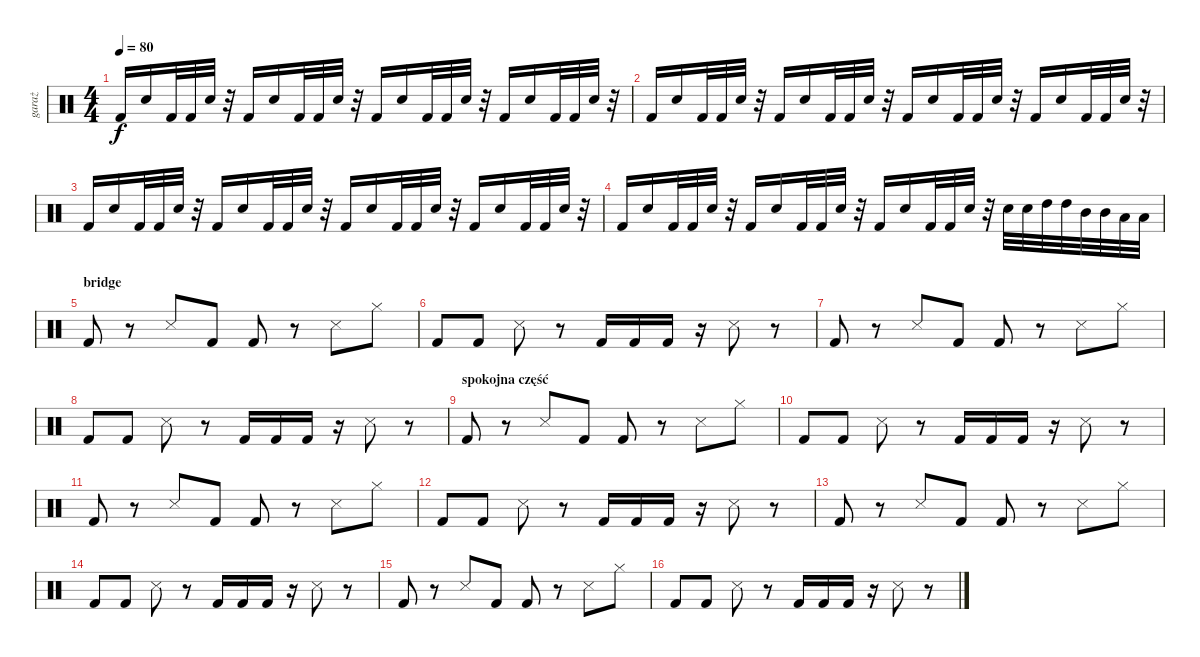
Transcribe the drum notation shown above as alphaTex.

\track ("garaż" "garaż") {instrument percussion}
\staff {score}
\articulation defaults
\ts (4 4)
\tempo 80
\clef neutral
\ks c "Kick (hit) 2".16{dy f} "Snare (hit) 2".16 "Kick (hit) 2".32 "Kick (hit) 2".32 "Snare (hit) 2".32
r.32 "Kick (hit) 2".16 "Snare (hit) 2".16 "Kick (hit) 2".32 "Kick (hit) 2".32 "Snare (hit) 2".32 r.32 "Kick (hit) 2".16 "Snare (hit) 2".16 "Kick (hit) 2".32 "Kick (hit) 2".32 "Snare (hit) 2".32 r.32 "Kick (hit) 2".16 "Snare (hit) 2".16 "Kick (hit) 2".32 "Kick (hit) 2".32 "Snare (hit) 2".32 r.32 |
"Kick (hit) 2".16 "Snare (hit) 2".16 "Kick (hit) 2".32 "Kick (hit) 2".32 "Snare (hit) 2".32 r.32 "Kick (hit) 2".16 "Snare (hit) 2".16 "Kick (hit) 2".32 "Kick (hit) 2".32 "Snare (hit) 2".32 r.32 "Kick (hit) 2".16 "Snare (hit) 2".16 "Kick (hit) 2".32 "Kick (hit) 2".32 "Snare (hit) 2".32 r.32 "Kick (hit) 2".16 "Snare (hit) 2".16 "Kick (hit) 2".32 "Kick (hit) 2".32 "Snare (hit) 2".32 r.32 |
"Kick (hit) 2".16 "Snare (hit) 2".16 "Kick (hit) 2".32 "Kick (hit) 2".32 "Snare (hit) 2".32 r.32 "Kick (hit) 2".16 "Snare (hit) 2".16 "Kick (hit) 2".32 "Kick (hit) 2".32 "Snare (hit) 2".32 r.32 "Kick (hit) 2".16 "Snare (hit) 2".16 "Kick (hit) 2".32 "Kick (hit) 2".32 "Snare (hit) 2".32 r.32 "Kick (hit) 2".16 "Snare (hit) 2".16 "Kick (hit) 2".32 "Kick (hit) 2".32 "Snare (hit) 2".32 r.32 |
"Kick (hit) 2".16 "Snare (hit) 2".16 "Kick (hit) 2".32 "Kick (hit) 2".32 "Snare (hit) 2".32 r.32 "Kick (hit) 2".16 "Snare (hit) 2".16 "Kick (hit) 2".32 "Kick (hit) 2".32 "Snare (hit) 2".32 r.32 "Kick (hit) 2".16 "Snare (hit) 2".16 "Kick (hit) 2".32 "Kick (hit) 2".32 "Snare (hit) 2".32 r.32 "Snare (hit) 2".32 "Snare (hit) 2".32 "High Tom (hit)".32 "High Tom (hit)".32 "Mid Tom (hit)".32 "Mid Tom (hit)".32 "Low Tom (hit)".32 "Low Tom (hit)".32 |
\section ("" "bridge")
"Kick (hit) 2".8 r.8 "Snare (side stick) 3".8 "Kick (hit) 2".8 "Kick (hit) 2".8 r.8 "Snare (side stick) 3".8 "Hi-Hat (closed)".8 |
"Kick (hit) 2".8 "Kick (hit) 2".8 "Snare (side stick) 3".8 r.8 "Kick (hit) 2".16 "Kick (hit) 2".16 "Kick (hit) 2".16 r.16 "Snare (side stick) 3".8 r.8 |
"Kick (hit) 2".8 r.8 "Snare (side stick) 3".8 "Kick (hit) 2".8 "Kick (hit) 2".8 r.8 "Snare (side stick) 3".8 "Hi-Hat (closed)".8 |
"Kick (hit) 2".8 "Kick (hit) 2".8 "Snare (side stick) 3".8 r.8 "Kick (hit) 2".16 "Kick (hit) 2".16 "Kick (hit) 2".16 r.16 "Snare (side stick) 3".8 r.8 |
\section ("" "spokojna część")
"Kick (hit) 2".8 r.8 "Snare (side stick) 3".8 "Kick (hit) 2".8 "Kick (hit) 2".8 r.8 "Snare (side stick) 3".8 "Hi-Hat (closed)".8 |
"Kick (hit) 2".8 "Kick (hit) 2".8 "Snare (side stick) 3".8 r.8 "Kick (hit) 2".16 "Kick (hit) 2".16 "Kick (hit) 2".16 r.16 "Snare (side stick) 3".8 r.8 |
"Kick (hit) 2".8 r.8 "Snare (side stick) 3".8 "Kick (hit) 2".8 "Kick (hit) 2".8 r.8 "Snare (side stick) 3".8 "Hi-Hat (closed)".8 |
"Kick (hit) 2".8 "Kick (hit) 2".8 "Snare (side stick) 3".8 r.8 "Kick (hit) 2".16 "Kick (hit) 2".16 "Kick (hit) 2".16 r.16 "Snare (side stick) 3".8 r.8 |
"Kick (hit) 2".8 r.8 "Snare (side stick) 3".8 "Kick (hit) 2".8 "Kick (hit) 2".8 r.8 "Snare (side stick) 3".8 "Hi-Hat (closed)".8 |
"Kick (hit) 2".8 "Kick (hit) 2".8 "Snare (side stick) 3".8 r.8 "Kick (hit) 2".16 "Kick (hit) 2".16 "Kick (hit) 2".16 r.16 "Snare (side stick) 3".8 r.8 |
"Kick (hit) 2".8 r.8 "Snare (side stick) 3".8 "Kick (hit) 2".8 "Kick (hit) 2".8 r.8 "Snare (side stick) 3".8 "Hi-Hat (closed)".8 |
"Kick (hit) 2".8 "Kick (hit) 2".8 "Snare (side stick) 3".8 r.8 "Kick (hit) 2".16 "Kick (hit) 2".16 "Kick (hit) 2".16 r.16 "Snare (side stick) 3".8 r.8
